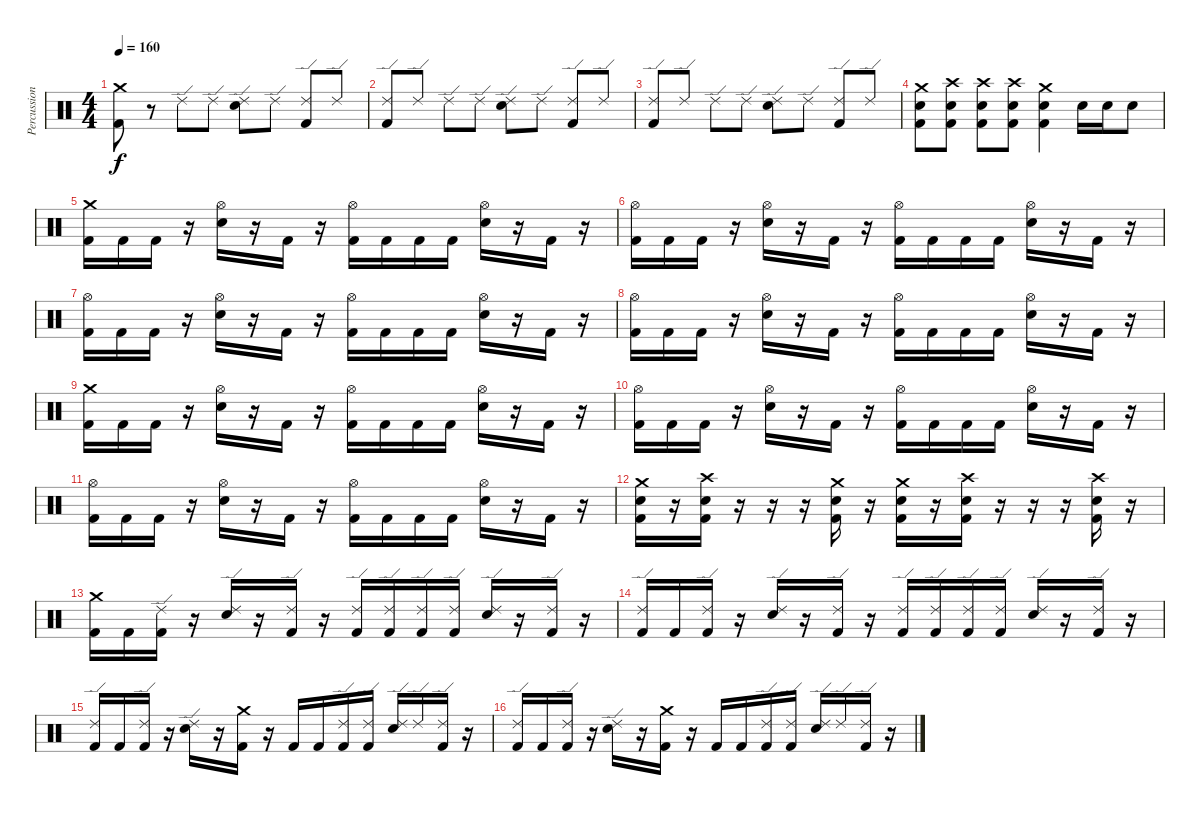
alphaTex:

\track ("Percussions" "Percussion") {instrument percussion}
\staff {score}
\articulation defaults
\ts (4 4)
\tempo 160
\clef neutral
\ks c
("Crash medium (hit)" "Kick (hit) 2").8{dy f} r.8 "Ride (edge) 2".8 "Ride (edge) 2".8 ("Ride (edge) 2" "Electric Snare (hit)").8 "Ride (edge) 2".8 ("Ride (edge) 2" "Kick (hit) 2").8 "Ride (edge) 2".8 |
("Ride (edge) 2" "Kick (hit) 2").8 "Ride (edge) 2".8 "Ride (edge) 2".8 "Ride (edge) 2".8 ("Ride (edge) 2" "Electric Snare (hit)").8 "Ride (edge) 2".8 ("Ride (edge) 2" "Kick (hit) 2").8 "Ride (edge) 2".8 |
("Ride (edge) 2" "Kick (hit) 2").8 "Ride (edge) 2".8 "Ride (edge) 2".8 "Ride (edge) 2".8 ("Ride (edge) 2" "Electric Snare (hit)").8 "Ride (edge) 2".8 ("Ride (edge) 2" "Kick (hit) 2").8 "Ride (edge) 2".8 |
("Electric Snare (hit)" "Kick (hit) 2" "Crash medium (hit)").8 ("Snare (hit) 2" "Kick (hit) 2" "Crash high (hit)").8 ("Snare (hit) 2" "Kick (hit) 2" "Crash high (hit)").8 ("Snare (hit) 2" "Kick (hit) 2" "Crash high (hit)").8 ("Crash medium (hit)" "Electric Snare (hit)" "Kick (hit) 2").4 "Snare (hit) 2".16 "Snare (hit) 2".16 "Snare (hit) 2".8 |
("Kick (hit) 2" "Crash medium (hit)").16 "Kick (hit) 2".16 "Kick (hit) 2".16 r.16 ("Snare (hit) 2" "Hi-Hat (open)").16 r.16 "Kick (hit) 2".16 r.16 ("Kick (hit) 2" "Hi-Hat (open)").16 "Kick (hit) 2".16 "Kick (hit) 2".16 "Kick (hit) 2".16 ("Snare (hit) 2" "Hi-Hat (open)").16 r.16 "Kick (hit) 2".16 r.16 |
("Kick (hit) 2" "Hi-Hat (open)").16 "Kick (hit) 2".16 "Kick (hit) 2".16 r.16 ("Snare (hit) 2" "Hi-Hat (open)").16 r.16 "Kick (hit) 2".16 r.16 ("Kick (hit) 2" "Hi-Hat (open)").16 "Kick (hit) 2".16 "Kick (hit) 2".16 "Kick (hit) 2".16 ("Snare (hit) 2" "Hi-Hat (open)").16 r.16 "Kick (hit) 2".16 r.16 |
("Kick (hit) 2" "Hi-Hat (open)").16 "Kick (hit) 2".16 "Kick (hit) 2".16 r.16 ("Snare (hit) 2" "Hi-Hat (open)").16 r.16 "Kick (hit) 2".16 r.16 ("Kick (hit) 2" "Hi-Hat (open)").16 "Kick (hit) 2".16 "Kick (hit) 2".16 "Kick (hit) 2".16 ("Snare (hit) 2" "Hi-Hat (open)").16 r.16 "Kick (hit) 2".16 r.16 |
("Kick (hit) 2" "Hi-Hat (open)").16 "Kick (hit) 2".16 "Kick (hit) 2".16 r.16 ("Snare (hit) 2" "Hi-Hat (open)").16 r.16 "Kick (hit) 2".16 r.16 ("Kick (hit) 2" "Hi-Hat (open)").16 "Kick (hit) 2".16 "Kick (hit) 2".16 "Kick (hit) 2".16 ("Snare (hit) 2" "Hi-Hat (open)").16 r.16 "Kick (hit) 2".16 r.16 |
("Kick (hit) 2" "Crash medium (hit)").16 "Kick (hit) 2".16 "Kick (hit) 2".16 r.16 ("Snare (hit) 2" "Hi-Hat (open)").16 r.16 "Kick (hit) 2".16 r.16 ("Kick (hit) 2" "Hi-Hat (open)").16 "Kick (hit) 2".16 "Kick (hit) 2".16 "Kick (hit) 2".16 ("Snare (hit) 2" "Hi-Hat (open)").16 r.16 "Kick (hit) 2".16 r.16 |
("Kick (hit) 2" "Hi-Hat (open)").16 "Kick (hit) 2".16 "Kick (hit) 2".16 r.16 ("Snare (hit) 2" "Hi-Hat (open)").16 r.16 "Kick (hit) 2".16 r.16 ("Kick (hit) 2" "Hi-Hat (open)").16 "Kick (hit) 2".16 "Kick (hit) 2".16 "Kick (hit) 2".16 ("Snare (hit) 2" "Hi-Hat (open)").16 r.16 "Kick (hit) 2".16 r.16 |
("Kick (hit) 2" "Hi-Hat (open)").16 "Kick (hit) 2".16 "Kick (hit) 2".16 r.16 ("Snare (hit) 2" "Hi-Hat (open)").16 r.16 "Kick (hit) 2".16 r.16 ("Kick (hit) 2" "Hi-Hat (open)").16 "Kick (hit) 2".16 "Kick (hit) 2".16 "Kick (hit) 2".16 ("Snare (hit) 2" "Hi-Hat (open)").16 r.16 "Kick (hit) 2".16 r.16 |
("Crash medium (hit)" "Kick (hit) 2" "Electric Snare (hit)").16 r.16 ("Crash high (hit)" "Kick (hit) 2" "Electric Snare (hit)").16 r.16 r.16 r.16 ("Crash medium (hit)" "Kick (hit) 2" "Electric Snare (hit)").16 r.16 ("Crash medium (hit)" "Kick (hit) 2" "Electric Snare (hit)").16 r.16 ("Crash high (hit)" "Kick (hit) 2" "Electric Snare (hit)").16 r.16 r.16 r.16 ("Crash high (hit)" "Electric Snare (hit)" "Kick (hit) 2").16 r.16 |
("Kick (hit) 2" "Crash medium (hit)").16 "Kick (hit) 2".16 ("Kick (hit) 2" "Ride (edge) 2").16 r.16 ("Snare (hit) 2" "Ride (edge) 2").16 r.16 ("Kick (hit) 2" "Ride (edge) 2").16 r.16 ("Kick (hit) 2" "Ride (edge) 2").16 ("Kick (hit) 2" "Ride (edge) 2").16 ("Kick (hit) 2" "Ride (edge) 2").16 ("Kick (hit) 2" "Ride (edge) 2").16 ("Snare (hit) 2" "Ride (edge) 2").16 r.16 ("Kick (hit) 2" "Ride (edge) 2").16 r.16 |
("Kick (hit) 2" "Ride (edge) 2").16 "Kick (hit) 2".16 ("Kick (hit) 2" "Ride (edge) 2").16 r.16 ("Snare (hit) 2" "Ride (edge) 2").16 r.16 ("Kick (hit) 2" "Ride (edge) 2").16 r.16 ("Kick (hit) 2" "Ride (edge) 2").16 ("Kick (hit) 2" "Ride (edge) 2").16 ("Kick (hit) 2" "Ride (edge) 2").16 ("Kick (hit) 2" "Ride (edge) 2").16 ("Snare (hit) 2" "Ride (edge) 2").16 r.16 ("Kick (hit) 2" "Ride (edge) 2").16 r.16 |
("Kick (hit) 2" "Ride (edge) 2").16 "Kick (hit) 2".16 ("Kick (hit) 2" "Ride (edge) 2").16 r.16 ("Snare (hit) 2" "Ride (edge) 2").16 r.16 ("Kick (hit) 2" "Crash medium (hit)").16 r.16 "Kick (hit) 2".16 "Kick (hit) 2".16 ("Kick (hit) 2" "Ride (edge) 2").16 ("Kick (hit) 2" "Ride (edge) 2").16 ("Snare (hit) 2" "Ride (edge) 2").16 "Ride (edge) 2".16 ("Kick (hit) 2" "Ride (edge) 2").16 r.16 |
("Kick (hit) 2" "Ride (edge) 2").16 "Kick (hit) 2".16 ("Kick (hit) 2" "Ride (edge) 2").16 r.16 ("Snare (hit) 2" "Ride (edge) 2").16 r.16 ("Kick (hit) 2" "Crash medium (hit)").16 r.16 "Kick (hit) 2".16 "Kick (hit) 2".16 ("Kick (hit) 2" "Ride (edge) 2").16 ("Kick (hit) 2" "Ride (edge) 2").16 ("Snare (hit) 2" "Ride (edge) 2").16 "Ride (edge) 2".16 ("Kick (hit) 2" "Ride (edge) 2").16 r.16
